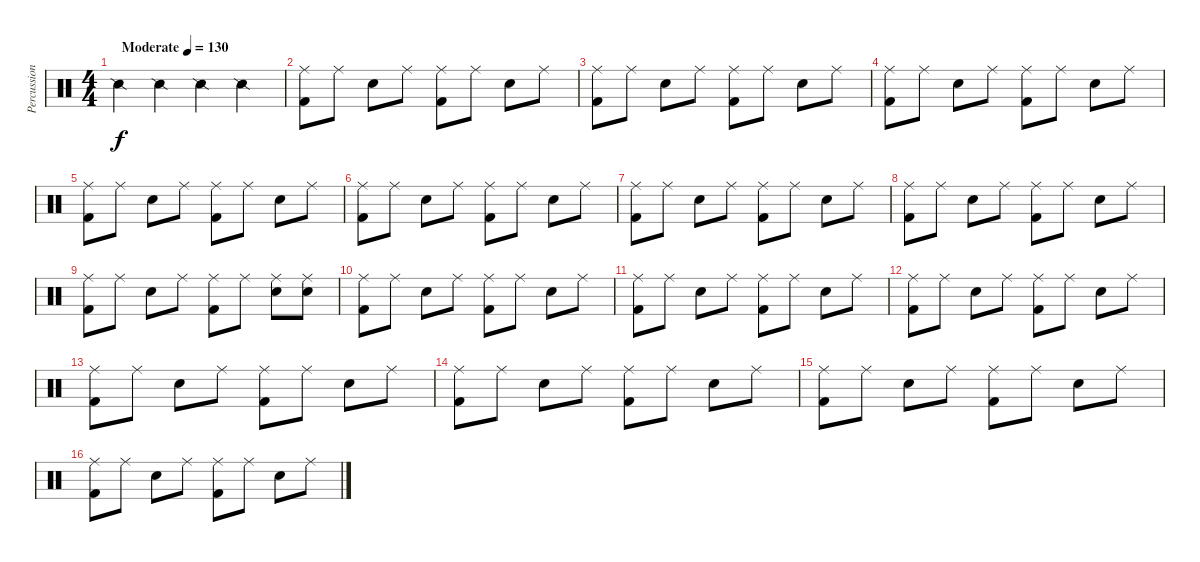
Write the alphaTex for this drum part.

\track ("Percussion" "Percussion") {instrument percussion}
\staff {score}
\articulation defaults
\ts (4 4)
\tempo (130 "Moderate")
\clef neutral
\ks c "Snare (side stick) 2".4{dy f} "Snare (side stick) 2".4 "Snare (side stick) 2".4 "Snare (side stick) 2".4
|
("Ride (middle)" "Kick (hit) 2").8 "Ride (middle)".8 "Snare (hit) 2".8 "Ride (middle)".8 ("Ride (middle)" "Kick (hit) 2").8 "Ride (middle)".8 "Snare (hit) 2".8 "Ride (middle)".8 |
("Ride (middle)" "Kick (hit) 2").8 "Ride (middle)".8 "Snare (hit) 2".8 "Ride (middle)".8 ("Ride (middle)" "Kick (hit) 2").8 "Ride (middle)".8 "Snare (hit) 2".8 "Ride (middle)".8 |
("Ride (middle)" "Kick (hit) 2").8 "Ride (middle)".8 "Snare (hit) 2".8 "Ride (middle)".8 ("Ride (middle)" "Kick (hit) 2").8 "Ride (middle)".8 "Snare (hit) 2".8 "Ride (middle)".8 |
("Ride (middle)" "Kick (hit) 2").8 "Ride (middle)".8 "Snare (hit) 2".8 "Ride (middle)".8 ("Ride (middle)" "Kick (hit) 2").8 "Ride (middle)".8 "Snare (hit) 2".8 "Ride (middle)".8 |
("Ride (middle)" "Kick (hit) 2").8 "Ride (middle)".8 "Snare (hit) 2".8 "Ride (middle)".8 ("Ride (middle)" "Kick (hit) 2").8 "Ride (middle)".8 "Snare (hit) 2".8 "Ride (middle)".8 |
("Ride (middle)" "Kick (hit) 2").8 "Ride (middle)".8 "Snare (hit) 2".8 "Ride (middle)".8 ("Ride (middle)" "Kick (hit) 2").8 "Ride (middle)".8 "Snare (hit) 2".8 "Ride (middle)".8 |
("Ride (middle)" "Kick (hit) 2").8 "Ride (middle)".8 "Snare (hit) 2".8 "Ride (middle)".8 ("Ride (middle)" "Kick (hit) 2").8 "Ride (middle)".8 "Snare (hit) 2".8 "Ride (middle)".8 |
("Ride (middle)" "Kick (hit) 2").8 "Ride (middle)".8 "Snare (hit) 2".8 "Ride (middle)".8 ("Ride (middle)" "Kick (hit) 2").8 "Ride (middle)".8 ("Ride (middle)" "Snare (hit) 2").8 ("Ride (middle)" "Snare (hit) 2").8 |
("Ride (middle)" "Kick (hit) 2").8 "Ride (middle)".8 "Snare (hit) 2".8 "Ride (middle)".8 ("Ride (middle)" "Kick (hit) 2").8 "Ride (middle)".8 "Snare (hit) 2".8 "Ride (middle)".8 |
("Ride (middle)" "Kick (hit) 2").8 "Ride (middle)".8 "Snare (hit) 2".8 "Ride (middle)".8 ("Ride (middle)" "Kick (hit) 2").8 "Ride (middle)".8 "Snare (hit) 2".8 "Ride (middle)".8 |
("Ride (middle)" "Kick (hit) 2").8 "Ride (middle)".8 "Snare (hit) 2".8 "Ride (middle)".8 ("Ride (middle)" "Kick (hit) 2").8 "Ride (middle)".8 "Snare (hit) 2".8 "Ride (middle)".8 |
("Ride (middle)" "Kick (hit) 2").8 "Ride (middle)".8 "Snare (hit) 2".8 "Ride (middle)".8 ("Ride (middle)" "Kick (hit) 2").8 "Ride (middle)".8 "Snare (hit) 2".8 "Ride (middle)".8 |
("Ride (middle)" "Kick (hit) 2").8 "Ride (middle)".8 "Snare (hit) 2".8 "Ride (middle)".8 ("Ride (middle)" "Kick (hit) 2").8 "Ride (middle)".8 "Snare (hit) 2".8 "Ride (middle)".8 |
("Ride (middle)" "Kick (hit) 2").8 "Ride (middle)".8 "Snare (hit) 2".8 "Ride (middle)".8 ("Ride (middle)" "Kick (hit) 2").8 "Ride (middle)".8 "Snare (hit) 2".8 "Ride (middle)".8 |
("Ride (middle)" "Kick (hit) 2").8 "Ride (middle)".8 "Snare (hit) 2".8 "Ride (middle)".8 ("Ride (middle)" "Kick (hit) 2").8 "Ride (middle)".8 "Snare (hit) 2".8 "Ride (middle)".8
